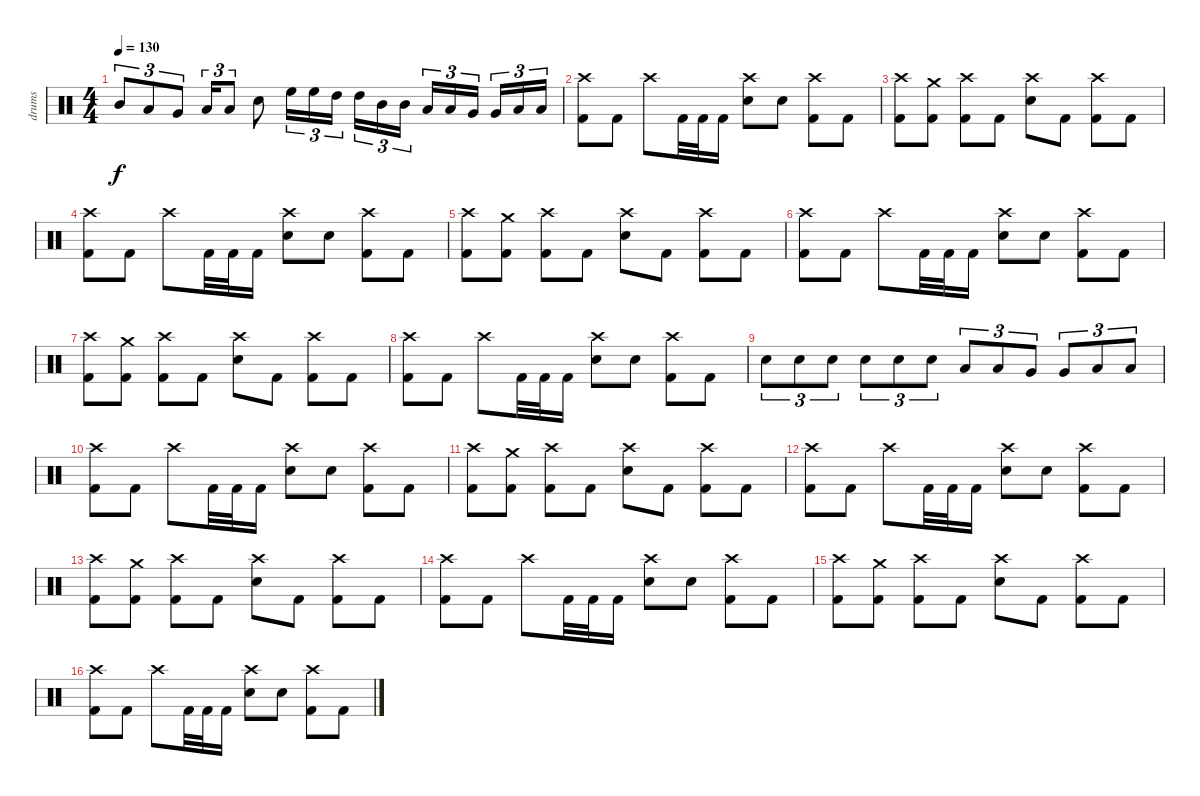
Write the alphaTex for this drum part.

\track ("drums" "drums") {instrument percussion}
\staff {score}
\articulation defaults
\ts (4 4)
\tempo 130
\clef neutral
\ks c "Mid Tom (hit)".8{tu (3 2) dy f} "Low Tom (hit)".8{tu (3 2)} "Very Low Tom (hit)".8{tu (3 2)} "Low Floor Tom (hit)".16{tu (3 2)} "Low Floor Tom (hit)".8{tu (3 2)} "Snare (hit) 2".8 "High Floor Tom (hit)".16{tu (3 2)} "High Floor Tom (hit)".16{tu (3 2)} "High Tom (hit)".16{tu (3 2) beam splitsecondary} "High Tom (hit)".16{tu (3 2)} "Mid Tom (hit)".16{tu (3 2)} "Mid Tom (hit)".16{tu (3 2)} "Low Tom (hit)".16{tu (3 2)} "Low Tom (hit)".16{tu (3 2)} "Very Low Tom (hit)".16{tu (3 2) beam splitsecondary} "Very Low Tom (hit)".16{tu (3 2)} "Low Floor Tom (hit)".16{tu (3 2)} "Low Floor Tom (hit)".16{tu (3 2)}
|
("Crash high (hit)" "Kick (hit) 2").8 "Kick (hit) 2".8 "Crash high (hit)".8 "Kick (hit) 2".32 "Kick (hit) 2".32 "Kick (hit) 2".16 ("Crash high (hit)" "Snare (hit) 2").8 "Snare (hit) 2".8 ("Crash high (hit)" "Kick (hit) 2").8 "Kick (hit) 2".8 |
("Crash high (hit)" "Kick (hit) 2").8 ("Crash medium (hit)" "Kick (hit) 2").8 ("Crash high (hit)" "Kick (hit) 2").8 "Kick (hit) 2".8 ("Crash high (hit)" "Snare (hit) 2").8 "Kick (hit) 2".8 ("Crash high (hit)" "Kick (hit) 2").8 "Kick (hit) 2".8 |
("Crash high (hit)" "Kick (hit) 2").8 "Kick (hit) 2".8 "Crash high (hit)".8 "Kick (hit) 2".32 "Kick (hit) 2".32 "Kick (hit) 2".16 ("Crash high (hit)" "Snare (hit) 2").8 "Snare (hit) 2".8 ("Crash high (hit)" "Kick (hit) 2").8 "Kick (hit) 2".8 |
("Crash high (hit)" "Kick (hit) 2").8 ("Crash medium (hit)" "Kick (hit) 2").8 ("Crash high (hit)" "Kick (hit) 2").8 "Kick (hit) 2".8 ("Crash high (hit)" "Snare (hit) 2").8 "Kick (hit) 2".8 ("Crash high (hit)" "Kick (hit) 2").8 "Kick (hit) 2".8 |
("Crash high (hit)" "Kick (hit) 2").8 "Kick (hit) 2".8 "Crash high (hit)".8 "Kick (hit) 2".32 "Kick (hit) 2".32 "Kick (hit) 2".16 ("Crash high (hit)" "Snare (hit) 2").8 "Snare (hit) 2".8 ("Crash high (hit)" "Kick (hit) 2").8 "Kick (hit) 2".8 |
("Crash high (hit)" "Kick (hit) 2").8 ("Crash medium (hit)" "Kick (hit) 2").8 ("Crash high (hit)" "Kick (hit) 2").8 "Kick (hit) 2".8 ("Crash high (hit)" "Snare (hit) 2").8 "Kick (hit) 2".8 ("Crash high (hit)" "Kick (hit) 2").8 "Kick (hit) 2".8 |
("Crash high (hit)" "Kick (hit) 2").8 "Kick (hit) 2".8 "Crash high (hit)".8 "Kick (hit) 2".32 "Kick (hit) 2".32 "Kick (hit) 2".16 ("Crash high (hit)" "Snare (hit) 2").8 "Snare (hit) 2".8 ("Crash high (hit)" "Kick (hit) 2").8 "Kick (hit) 2".8 |
"Snare (hit) 2".8{tu (3 2)} "Snare (hit) 2".8{tu (3 2)} "Snare (hit) 2".8{tu (3 2)} "Snare (hit) 2".8{tu (3 2)} "Snare (hit) 2".8{tu (3 2)} "Snare (hit) 2".8{tu (3 2)} "Low Tom (hit)".8{tu (3 2)} "Low Tom (hit)".8{tu (3 2)} "Very Low Tom (hit)".8{tu (3 2)} "Very Low Tom (hit)".8{tu (3 2)} "Low Floor Tom (hit)".8{tu (3 2)} "Low Floor Tom (hit)".8{tu (3 2)} |
("Crash high (hit)" "Kick (hit) 2").8 "Kick (hit) 2".8 "Crash high (hit)".8 "Kick (hit) 2".32 "Kick (hit) 2".32 "Kick (hit) 2".16 ("Crash high (hit)" "Snare (hit) 2").8 "Snare (hit) 2".8 ("Crash high (hit)" "Kick (hit) 2").8 "Kick (hit) 2".8 |
("Crash high (hit)" "Kick (hit) 2").8 ("Crash medium (hit)" "Kick (hit) 2").8 ("Crash high (hit)" "Kick (hit) 2").8 "Kick (hit) 2".8 ("Crash high (hit)" "Snare (hit) 2").8 "Kick (hit) 2".8 ("Crash high (hit)" "Kick (hit) 2").8 "Kick (hit) 2".8 |
("Crash high (hit)" "Kick (hit) 2").8 "Kick (hit) 2".8 "Crash high (hit)".8 "Kick (hit) 2".32 "Kick (hit) 2".32 "Kick (hit) 2".16 ("Crash high (hit)" "Snare (hit) 2").8 "Snare (hit) 2".8 ("Crash high (hit)" "Kick (hit) 2").8 "Kick (hit) 2".8 |
("Crash high (hit)" "Kick (hit) 2").8 ("Crash medium (hit)" "Kick (hit) 2").8 ("Crash high (hit)" "Kick (hit) 2").8 "Kick (hit) 2".8 ("Crash high (hit)" "Snare (hit) 2").8 "Kick (hit) 2".8 ("Crash high (hit)" "Kick (hit) 2").8 "Kick (hit) 2".8 |
("Crash high (hit)" "Kick (hit) 2").8 "Kick (hit) 2".8 "Crash high (hit)".8 "Kick (hit) 2".32 "Kick (hit) 2".32 "Kick (hit) 2".16 ("Crash high (hit)" "Snare (hit) 2").8 "Snare (hit) 2".8 ("Crash high (hit)" "Kick (hit) 2").8 "Kick (hit) 2".8 |
("Crash high (hit)" "Kick (hit) 2").8 ("Crash medium (hit)" "Kick (hit) 2").8 ("Crash high (hit)" "Kick (hit) 2").8 "Kick (hit) 2".8 ("Crash high (hit)" "Snare (hit) 2").8 "Kick (hit) 2".8 ("Crash high (hit)" "Kick (hit) 2").8 "Kick (hit) 2".8 |
("Crash high (hit)" "Kick (hit) 2").8 "Kick (hit) 2".8 "Crash high (hit)".8 "Kick (hit) 2".32 "Kick (hit) 2".32 "Kick (hit) 2".16 ("Crash high (hit)" "Snare (hit) 2").8 "Snare (hit) 2".8 ("Crash high (hit)" "Kick (hit) 2").8 "Kick (hit) 2".8
